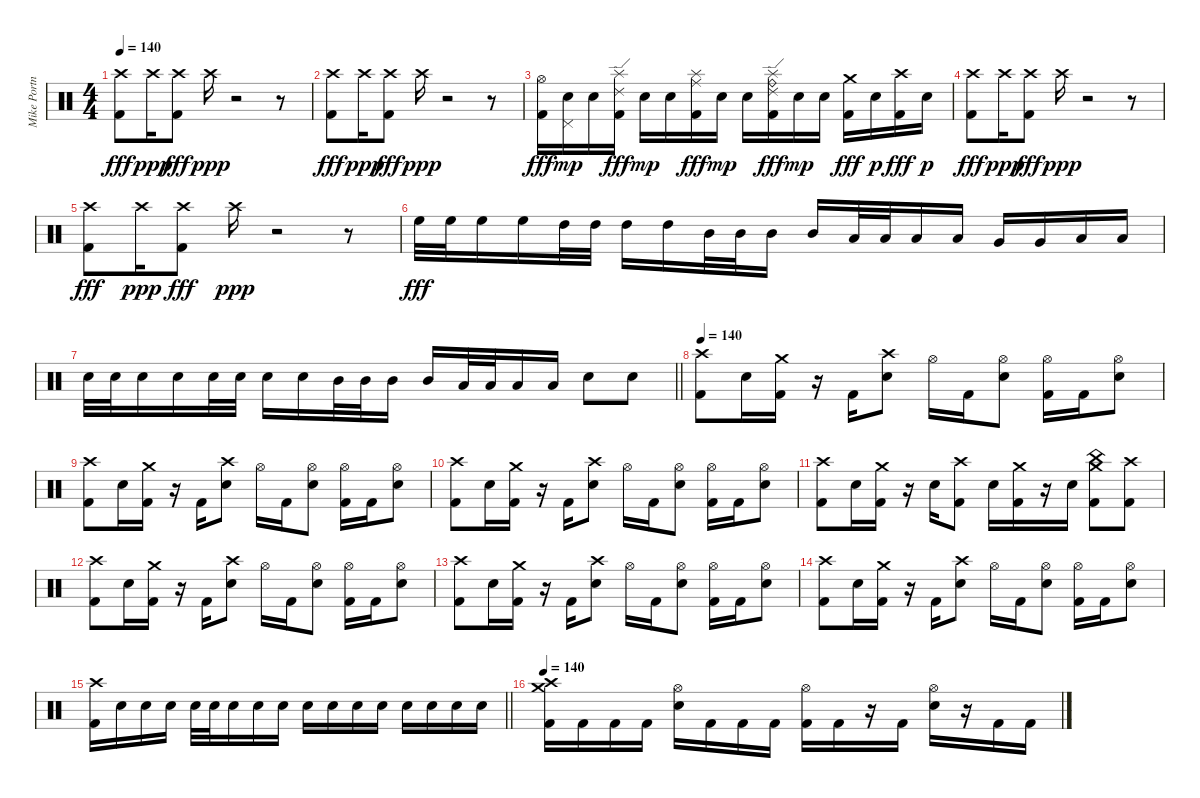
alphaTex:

\track ("Mike Portnoy" "Mike Portn") {instrument percussion}
\staff {score}
\articulation defaults
\ts (4 4)
\tempo 140
\clef neutral
\ks c
("Crash high (hit)" "Kick (hit) 2").8{dy fff} "Crash high (hit)".16{dy ppp} ("Crash high (hit)" "Kick (hit) 2").8{dy fff} "Crash high (hit)".16{dy ppp} r.2 r.8 |
("Crash high (hit)" "Kick (hit) 2").8{dy fff} "Crash high (hit)".16{dy ppp} ("Crash high (hit)" "Kick (hit) 2").8{dy fff} "Crash high (hit)".16{dy ppp} r.2 r.8 |
("Hi-Hat (open)" "Kick (hit) 2").16{dy fff} ("Pedal Hi-Hat (hit)" "Electric Snare (hit)").16{dy mp} "Electric Snare (hit)".16 ("Ride (edge) 2" "Splash (hit)" "Kick (hit) 2").16{dy fff} "Electric Snare (hit)".16{dy mp} "Electric Snare (hit)".16 ("Ride (middle)" "Splash (hit)" "Kick (hit) 2").16{dy fff} "Electric Snare (hit)".16{dy mp} "Electric Snare (hit)".16 ("Ride (bell)" "Ride (edge) 2" "Splash (hit)" "Kick (hit) 2").16{dy fff} "Electric Snare (hit)".16{dy mp} "Electric Snare (hit)".16 ("Crash medium (hit)" "Kick (hit) 2").16{dy fff} "Electric Snare (hit)".16{dy p} ("Crash high (hit)" "Kick (hit) 2").16{dy fff} "Electric Snare (hit)".16{dy p} |
("Crash high (hit)" "Kick (hit) 2").8{dy fff} "Crash high (hit)".16{dy ppp} ("Crash high (hit)" "Kick (hit) 2").8{dy fff} "Crash high (hit)".16{dy ppp} r.2 r.8 |
("Crash high (hit)" "Kick (hit) 2").8{dy fff} "Crash high (hit)".16{dy ppp} ("Crash high (hit)" "Kick (hit) 2").8{dy fff} "Crash high (hit)".16{dy ppp} r.2 r.8 |
"High Floor Tom (hit)".32{dy fff} "High Floor Tom (hit)".32 "High Floor Tom (hit)".16 "High Floor Tom (hit)".16 "High Tom (hit)".32 "High Tom (hit)".32 "High Tom (hit)".16 "High Tom (hit)".16 "Mid Tom (hit)".32 "Mid Tom (hit)".32 "Mid Tom (hit)".16 "Mid Tom (hit)".16 "Low Tom (hit)".32 "Low Tom (hit)".32 "Low Tom (hit)".16 "Low Tom (hit)".16 "Very Low Tom (hit)".16 "Very Low Tom (hit)".16 "Low Floor Tom (hit)".16 "Low Floor Tom (hit)".16 |
\barLineRight lightlight "Electric Snare (hit)".32 "Electric Snare (hit)".32 "Electric Snare (hit)".16 "Electric Snare (hit)".16 "Electric Snare (hit)".32 "Electric Snare (hit)".32 "Electric Snare (hit)".16 "Electric Snare (hit)".16 "Mid Tom (hit)".32 "Mid Tom (hit)".32 "Mid Tom (hit)".16 "Mid Tom (hit)".16 "Low Tom (hit)".32 "Low Tom (hit)".32 "Low Tom (hit)".16 "Low Tom (hit)".16 "Electric Snare (hit)".8 "Electric Snare (hit)".8
|
\tempo 140
("Crash high (hit)" "Kick (hit) 2").8 "Electric Snare (hit)".16 ("Crash medium (hit)" "Kick (hit) 2").16 r.16 "Kick (hit) 2".16 ("Crash high (hit)" "Electric Snare (hit)").8 "Hi-Hat (open)".16 "Kick (hit) 2".16 ("Hi-Hat (open)" "Electric Snare (hit)").8 ("Hi-Hat (open)" "Kick (hit) 2").16 "Kick (hit) 2".16 ("Hi-Hat (open)" "Electric Snare (hit)").8 |
("Crash high (hit)" "Kick (hit) 2").8 "Electric Snare (hit)".16 ("Crash medium (hit)" "Kick (hit) 2").16 r.16 "Kick (hit) 2".16 ("Crash high (hit)" "Electric Snare (hit)").8 "Hi-Hat (open)".16 "Kick (hit) 2".16 ("Hi-Hat (open)" "Electric Snare (hit)").8 ("Hi-Hat (open)" "Kick (hit) 2").16 "Kick (hit) 2".16 ("Hi-Hat (open)" "Electric Snare (hit)").8 |
("Crash high (hit)" "Kick (hit) 2").8 "Electric Snare (hit)".16 ("Crash medium (hit)" "Kick (hit) 2").16 r.16 "Kick (hit) 2".16 ("Crash high (hit)" "Electric Snare (hit)").8 "Hi-Hat (open)".16 "Kick (hit) 2".16 ("Hi-Hat (open)" "Electric Snare (hit)").8 ("Hi-Hat (open)" "Kick (hit) 2").16 "Kick (hit) 2".16 ("Hi-Hat (open)" "Electric Snare (hit)").8 |
("Crash high (hit)" "Kick (hit) 2").8 "Electric Snare (hit)".16 ("Crash medium (hit)" "Kick (hit) 2").16 r.16 "Electric Snare (hit)".16 ("Crash high (hit)" "Kick (hit) 2").8 "Electric Snare (hit)".16 ("Crash medium (hit)" "Kick (hit) 2").16 r.16 "Electric Snare (hit)".16 ("Crash medium (hit)" "China (hit)" "Kick (hit) 2").8 ("Crash high (hit)" "Kick (hit) 2").8 |
("Crash high (hit)" "Kick (hit) 2").8 "Electric Snare (hit)".16 ("Crash medium (hit)" "Kick (hit) 2").16 r.16 "Kick (hit) 2".16 ("Crash high (hit)" "Electric Snare (hit)").8 "Hi-Hat (open)".16 "Kick (hit) 2".16 ("Hi-Hat (open)" "Electric Snare (hit)").8 ("Hi-Hat (open)" "Kick (hit) 2").16 "Kick (hit) 2".16 ("Hi-Hat (open)" "Electric Snare (hit)").8 |
("Crash high (hit)" "Kick (hit) 2").8 "Electric Snare (hit)".16 ("Crash medium (hit)" "Kick (hit) 2").16 r.16 "Kick (hit) 2".16 ("Crash high (hit)" "Electric Snare (hit)").8 "Hi-Hat (open)".16 "Kick (hit) 2".16 ("Hi-Hat (open)" "Electric Snare (hit)").8 ("Hi-Hat (open)" "Kick (hit) 2").16 "Kick (hit) 2".16 ("Hi-Hat (open)" "Electric Snare (hit)").8 |
("Crash high (hit)" "Kick (hit) 2").8 "Electric Snare (hit)".16 ("Crash medium (hit)" "Kick (hit) 2").16 r.16 "Kick (hit) 2".16 ("Crash high (hit)" "Electric Snare (hit)").8 "Hi-Hat (open)".16 "Kick (hit) 2".16 ("Hi-Hat (open)" "Electric Snare (hit)").8 ("Hi-Hat (open)" "Kick (hit) 2").16 "Kick (hit) 2".16 ("Hi-Hat (open)" "Electric Snare (hit)").8 |
\barLineRight lightlight
("Crash high (hit)" "Kick (hit) 2").16 "Electric Snare (hit)".16 "Electric Snare (hit)".16 "Electric Snare (hit)".16 "Electric Snare (hit)".32 "Electric Snare (hit)".32 "Electric Snare (hit)".16 "Electric Snare (hit)".16 "Electric Snare (hit)".16 "Electric Snare (hit)".16 "Electric Snare (hit)".16 "Electric Snare (hit)".16 "Electric Snare (hit)".16 "Electric Snare (hit)".16 "Electric Snare (hit)".16 "Electric Snare (hit)".16 "Electric Snare (hit)".16 |
\tempo 140
("Crash high (hit)" "Crash medium (hit)" "Kick (hit) 2").16 "Kick (hit) 2".16 "Kick (hit) 2".16 "Kick (hit) 2".16 ("Hi-Hat (open)" "Electric Snare (hit)").16 "Kick (hit) 2".16 "Kick (hit) 2".16 "Kick (hit) 2".16 ("Hi-Hat (open)" "Kick (hit) 2").16 "Kick (hit) 2".16 r.16 "Kick (hit) 2".16 ("Hi-Hat (open)" "Electric Snare (hit)").16 r.16 "Kick (hit) 2".16 "Kick (hit) 2".16
